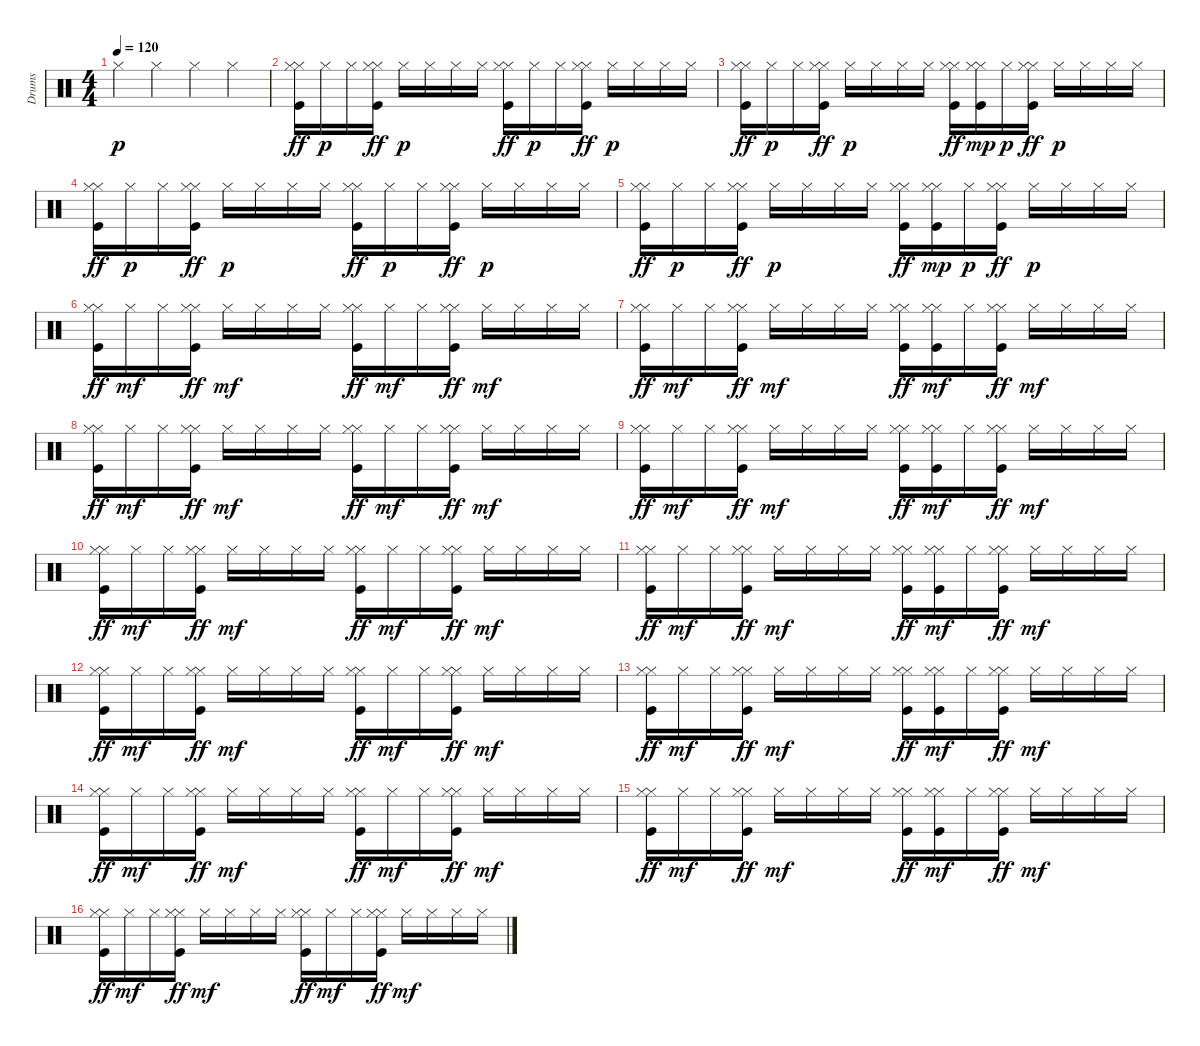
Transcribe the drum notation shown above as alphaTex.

\track ("Drums" "Drums") {instrument percussion}
\staff {score}
\articulation defaults
\ts (4 4)
\tempo 120
\clef neutral
\ks c "Hi-Hat (closed)".4{dy p} "Hi-Hat (closed)".4 "Hi-Hat (closed)".4 "Hi-Hat (closed)".4
|
("Hi-Hat (closed)" "Hi-Hat (closed)" "Kick (hit)").16{dy ff volume 6} "Hi-Hat (closed)".16{dy p} "Hi-Hat (closed)".16 ("Hi-Hat (closed)" "Hi-Hat (closed)" "Kick (hit)").16{dy ff} "Hi-Hat (closed)".16{dy p} "Hi-Hat (closed)".16 "Hi-Hat (closed)".16 "Hi-Hat (closed)".16 ("Hi-Hat (closed)" "Hi-Hat (closed)" "Kick (hit)").16{dy ff} "Hi-Hat (closed)".16{dy p} "Hi-Hat (closed)".16 ("Hi-Hat (closed)" "Hi-Hat (closed)" "Kick (hit)").16{dy ff} "Hi-Hat (closed)".16{dy p} "Hi-Hat (closed)".16 "Hi-Hat (closed)".16 "Hi-Hat (closed)".16 |
("Hi-Hat (closed)" "Hi-Hat (closed)" "Kick (hit)").16{dy ff volume 7} "Hi-Hat (closed)".16{dy p} "Hi-Hat (closed)".16 ("Hi-Hat (closed)" "Hi-Hat (closed)" "Kick (hit)").16{dy ff} "Hi-Hat (closed)".16{dy p} "Hi-Hat (closed)".16 "Hi-Hat (closed)".16 "Hi-Hat (closed)".16 ("Hi-Hat (closed)" "Hi-Hat (closed)" "Kick (hit)").16{dy ff} ("Hi-Hat (closed)" "Hi-Hat (closed)" "Kick (hit)").16{dy mp} "Hi-Hat (closed)".16{dy p} ("Hi-Hat (closed)" "Hi-Hat (closed)" "Kick (hit)").16{dy ff} "Hi-Hat (closed)".16{dy p} "Hi-Hat (closed)".16 "Hi-Hat (closed)".16 "Hi-Hat (closed)".16 |
("Hi-Hat (closed)" "Hi-Hat (closed)" "Kick (hit)").16{dy ff} "Hi-Hat (closed)".16{dy p} "Hi-Hat (closed)".16 ("Hi-Hat (closed)" "Hi-Hat (closed)" "Kick (hit)").16{dy ff} "Hi-Hat (closed)".16{dy p} "Hi-Hat (closed)".16 "Hi-Hat (closed)".16 "Hi-Hat (closed)".16 ("Hi-Hat (closed)" "Hi-Hat (closed)" "Kick (hit)").16{dy ff} "Hi-Hat (closed)".16{dy p} "Hi-Hat (closed)".16 ("Hi-Hat (closed)" "Hi-Hat (closed)" "Kick (hit)").16{dy ff} "Hi-Hat (closed)".16{dy p} "Hi-Hat (closed)".16 "Hi-Hat (closed)".16 "Hi-Hat (closed)".16 |
("Hi-Hat (closed)" "Hi-Hat (closed)" "Kick (hit)").16{dy ff} "Hi-Hat (closed)".16{dy p} "Hi-Hat (closed)".16 ("Hi-Hat (closed)" "Hi-Hat (closed)" "Kick (hit)").16{dy ff} "Hi-Hat (closed)".16{dy p} "Hi-Hat (closed)".16 "Hi-Hat (closed)".16 "Hi-Hat (closed)".16 ("Hi-Hat (closed)" "Hi-Hat (closed)" "Kick (hit)").16{dy ff} ("Hi-Hat (closed)" "Hi-Hat (closed)" "Kick (hit)").16{dy mp} "Hi-Hat (closed)".16{dy p} ("Hi-Hat (closed)" "Hi-Hat (closed)" "Kick (hit)").16{dy ff} "Hi-Hat (closed)".16{dy p} "Hi-Hat (closed)".16 "Hi-Hat (closed)".16 "Hi-Hat (closed)".16 |
("Hi-Hat (closed)" "Hi-Hat (closed)" "Kick (hit)").16{dy ff} "Hi-Hat (closed)".16{dy mf} "Hi-Hat (closed)".16 ("Hi-Hat (closed)" "Hi-Hat (closed)" "Kick (hit)").16{dy ff} "Hi-Hat (closed)".16{dy mf} "Hi-Hat (closed)".16 "Hi-Hat (closed)".16 "Hi-Hat (closed)".16 ("Hi-Hat (closed)" "Hi-Hat (closed)" "Kick (hit)").16{dy ff} "Hi-Hat (closed)".16{dy mf} "Hi-Hat (closed)".16 ("Hi-Hat (closed)" "Hi-Hat (closed)" "Kick (hit)").16{dy ff} "Hi-Hat (closed)".16{dy mf} "Hi-Hat (closed)".16 "Hi-Hat (closed)".16 "Hi-Hat (closed)".16 |
("Hi-Hat (closed)" "Hi-Hat (closed)" "Kick (hit)").16{dy ff} "Hi-Hat (closed)".16{dy mf} "Hi-Hat (closed)".16 ("Hi-Hat (closed)" "Hi-Hat (closed)" "Kick (hit)").16{dy ff} "Hi-Hat (closed)".16{dy mf} "Hi-Hat (closed)".16 "Hi-Hat (closed)".16 "Hi-Hat (closed)".16 ("Hi-Hat (closed)" "Hi-Hat (closed)" "Kick (hit)").16{dy ff} ("Hi-Hat (closed)" "Hi-Hat (closed)" "Kick (hit)").16{dy mf} "Hi-Hat (closed)".16 ("Hi-Hat (closed)" "Hi-Hat (closed)" "Kick (hit)").16{dy ff} "Hi-Hat (closed)".16{dy mf} "Hi-Hat (closed)".16 "Hi-Hat (closed)".16 "Hi-Hat (closed)".16 |
("Hi-Hat (closed)" "Hi-Hat (closed)" "Kick (hit)").16{dy ff volume 10} "Hi-Hat (closed)".16{dy mf} "Hi-Hat (closed)".16 ("Hi-Hat (closed)" "Hi-Hat (closed)" "Kick (hit)").16{dy ff} "Hi-Hat (closed)".16{dy mf} "Hi-Hat (closed)".16 "Hi-Hat (closed)".16 "Hi-Hat (closed)".16 ("Hi-Hat (closed)" "Hi-Hat (closed)" "Kick (hit)").16{dy ff} "Hi-Hat (closed)".16{dy mf} "Hi-Hat (closed)".16 ("Hi-Hat (closed)" "Hi-Hat (closed)" "Kick (hit)").16{dy ff} "Hi-Hat (closed)".16{dy mf} "Hi-Hat (closed)".16 "Hi-Hat (closed)".16 "Hi-Hat (closed)".16 |
("Hi-Hat (closed)" "Hi-Hat (closed)" "Kick (hit)").16{dy ff} "Hi-Hat (closed)".16{dy mf} "Hi-Hat (closed)".16 ("Hi-Hat (closed)" "Hi-Hat (closed)" "Kick (hit)").16{dy ff} "Hi-Hat (closed)".16{dy mf} "Hi-Hat (closed)".16 "Hi-Hat (closed)".16 "Hi-Hat (closed)".16 ("Hi-Hat (closed)" "Hi-Hat (closed)" "Kick (hit)").16{dy ff} ("Hi-Hat (closed)" "Hi-Hat (closed)" "Kick (hit)").16{dy mf} "Hi-Hat (closed)".16 ("Hi-Hat (closed)" "Hi-Hat (closed)" "Kick (hit)").16{dy ff} "Hi-Hat (closed)".16{dy mf} "Hi-Hat (closed)".16 "Hi-Hat (closed)".16 "Hi-Hat (closed)".16 |
("Hi-Hat (closed)" "Hi-Hat (closed)" "Kick (hit)").16{dy ff} "Hi-Hat (closed)".16{dy mf} "Hi-Hat (closed)".16 ("Hi-Hat (closed)" "Hi-Hat (closed)" "Kick (hit)").16{dy ff} "Hi-Hat (closed)".16{dy mf} "Hi-Hat (closed)".16 "Hi-Hat (closed)".16 "Hi-Hat (closed)".16 ("Hi-Hat (closed)" "Hi-Hat (closed)" "Kick (hit)").16{dy ff} "Hi-Hat (closed)".16{dy mf} "Hi-Hat (closed)".16 ("Hi-Hat (closed)" "Hi-Hat (closed)" "Kick (hit)").16{dy ff} "Hi-Hat (closed)".16{dy mf} "Hi-Hat (closed)".16 "Hi-Hat (closed)".16 "Hi-Hat (closed)".16 |
("Hi-Hat (closed)" "Hi-Hat (closed)" "Kick (hit)").16{dy ff} "Hi-Hat (closed)".16{dy mf} "Hi-Hat (closed)".16 ("Hi-Hat (closed)" "Hi-Hat (closed)" "Kick (hit)").16{dy ff} "Hi-Hat (closed)".16{dy mf} "Hi-Hat (closed)".16 "Hi-Hat (closed)".16 "Hi-Hat (closed)".16 ("Hi-Hat (closed)" "Hi-Hat (closed)" "Kick (hit)").16{dy ff} ("Hi-Hat (closed)" "Hi-Hat (closed)" "Kick (hit)").16{dy mf} "Hi-Hat (closed)".16 ("Hi-Hat (closed)" "Hi-Hat (closed)" "Kick (hit)").16{dy ff} "Hi-Hat (closed)".16{dy mf} "Hi-Hat (closed)".16 "Hi-Hat (closed)".16 "Hi-Hat (closed)".16 |
("Hi-Hat (closed)" "Hi-Hat (closed)" "Kick (hit)").16{dy ff volume 14} "Hi-Hat (closed)".16{dy mf} "Hi-Hat (closed)".16 ("Hi-Hat (closed)" "Hi-Hat (closed)" "Kick (hit)").16{dy ff} "Hi-Hat (closed)".16{dy mf} "Hi-Hat (closed)".16 "Hi-Hat (closed)".16 "Hi-Hat (closed)".16 ("Hi-Hat (closed)" "Hi-Hat (closed)" "Kick (hit)").16{dy ff} "Hi-Hat (closed)".16{dy mf} "Hi-Hat (closed)".16 ("Hi-Hat (closed)" "Hi-Hat (closed)" "Kick (hit)").16{dy ff} "Hi-Hat (closed)".16{dy mf} "Hi-Hat (closed)".16 "Hi-Hat (closed)".16 "Hi-Hat (closed)".16 |
("Hi-Hat (closed)" "Hi-Hat (closed)" "Kick (hit)").16{dy ff} "Hi-Hat (closed)".16{dy mf} "Hi-Hat (closed)".16 ("Hi-Hat (closed)" "Hi-Hat (closed)" "Kick (hit)").16{dy ff} "Hi-Hat (closed)".16{dy mf} "Hi-Hat (closed)".16 "Hi-Hat (closed)".16 "Hi-Hat (closed)".16 ("Hi-Hat (closed)" "Hi-Hat (closed)" "Kick (hit)").16{dy ff} ("Hi-Hat (closed)" "Hi-Hat (closed)" "Kick (hit)").16{dy mf} "Hi-Hat (closed)".16 ("Hi-Hat (closed)" "Hi-Hat (closed)" "Kick (hit)").16{dy ff} "Hi-Hat (closed)".16{dy mf} "Hi-Hat (closed)".16 "Hi-Hat (closed)".16 "Hi-Hat (closed)".16 |
("Hi-Hat (closed)" "Hi-Hat (closed)" "Kick (hit)").16{dy ff} "Hi-Hat (closed)".16{dy mf} "Hi-Hat (closed)".16 ("Hi-Hat (closed)" "Hi-Hat (closed)" "Kick (hit)").16{dy ff} "Hi-Hat (closed)".16{dy mf} "Hi-Hat (closed)".16 "Hi-Hat (closed)".16 "Hi-Hat (closed)".16 ("Hi-Hat (closed)" "Hi-Hat (closed)" "Kick (hit)").16{dy ff} "Hi-Hat (closed)".16{dy mf} "Hi-Hat (closed)".16 ("Hi-Hat (closed)" "Hi-Hat (closed)" "Kick (hit)").16{dy ff} "Hi-Hat (closed)".16{dy mf} "Hi-Hat (closed)".16 "Hi-Hat (closed)".16 "Hi-Hat (closed)".16 |
("Hi-Hat (closed)" "Hi-Hat (closed)" "Kick (hit)").16{dy ff} "Hi-Hat (closed)".16{dy mf} "Hi-Hat (closed)".16 ("Hi-Hat (closed)" "Hi-Hat (closed)" "Kick (hit)").16{dy ff} "Hi-Hat (closed)".16{dy mf} "Hi-Hat (closed)".16 "Hi-Hat (closed)".16 "Hi-Hat (closed)".16 ("Hi-Hat (closed)" "Hi-Hat (closed)" "Kick (hit)").16{dy ff} ("Hi-Hat (closed)" "Hi-Hat (closed)" "Kick (hit)").16{dy mf} "Hi-Hat (closed)".16 ("Hi-Hat (closed)" "Hi-Hat (closed)" "Kick (hit)").16{dy ff} "Hi-Hat (closed)".16{dy mf} "Hi-Hat (closed)".16 "Hi-Hat (closed)".16 "Hi-Hat (closed)".16 |
("Hi-Hat (closed)" "Hi-Hat (closed)" "Kick (hit)").16{dy ff} "Hi-Hat (closed)".16{dy mf} "Hi-Hat (closed)".16 ("Hi-Hat (closed)" "Hi-Hat (closed)" "Kick (hit)").16{dy ff} "Hi-Hat (closed)".16{dy mf} "Hi-Hat (closed)".16 "Hi-Hat (closed)".16 "Hi-Hat (closed)".16 ("Hi-Hat (closed)" "Hi-Hat (closed)" "Kick (hit)").16{dy ff} "Hi-Hat (closed)".16{dy mf} "Hi-Hat (closed)".16 ("Hi-Hat (closed)" "Hi-Hat (closed)" "Kick (hit)").16{dy ff} "Hi-Hat (closed)".16{dy mf} "Hi-Hat (closed)".16 "Hi-Hat (closed)".16 "Hi-Hat (closed)".16
